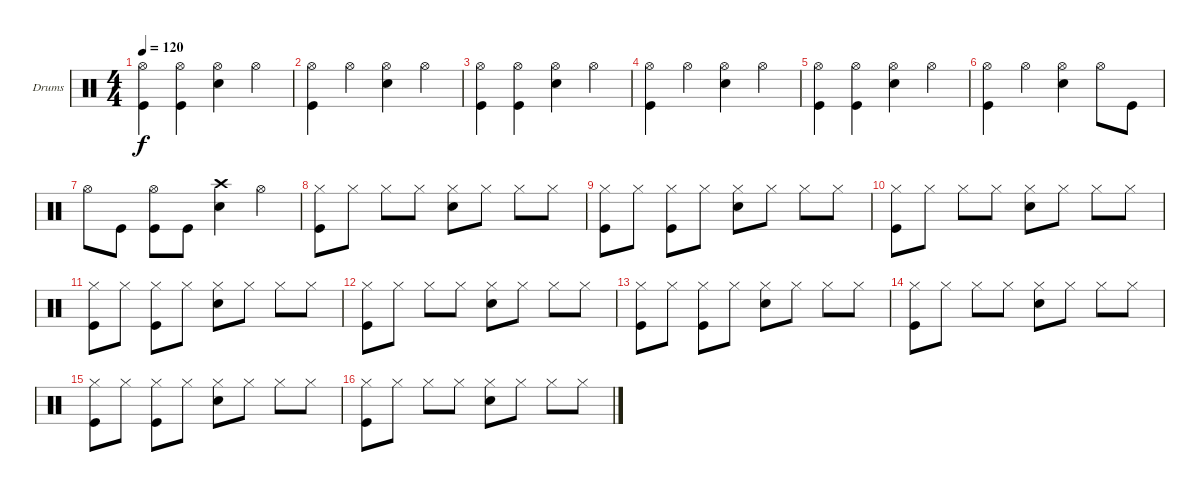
\bracketExtendMode groupsimilarinstruments
\firstSystemTrackNameOrientation horizontal
\otherSystemsTrackNameOrientation horizontal
\track ("Drumkit (Christoph)" "Drums") {instrument percussion}
\staff {score}
\articulation defaults
\ts (4 4)
\tempo 120
\clef neutral
\ks c
("Hi-Hat (open)" "Kick (hit)").4{dy f} ("Hi-Hat (open)" "Kick (hit)").4 ("Hi-Hat (open)" "Snare (hit) 2").4 "Hi-Hat (open)".4 |
("Hi-Hat (open)" "Kick (hit)").4 "Hi-Hat (open)".4 ("Hi-Hat (open)" "Snare (hit) 2").4 "Hi-Hat (open)".4 |
("Hi-Hat (open)" "Kick (hit)").4 ("Hi-Hat (open)" "Kick (hit)").4 ("Hi-Hat (open)" "Snare (hit) 2").4 "Hi-Hat (open)".4 |
("Hi-Hat (open)" "Kick (hit)").4 "Hi-Hat (open)".4 ("Hi-Hat (open)" "Snare (hit) 2").4 "Hi-Hat (open)".4 |
("Hi-Hat (open)" "Kick (hit)").4 ("Hi-Hat (open)" "Kick (hit)").4 ("Hi-Hat (open)" "Snare (hit) 2").4 "Hi-Hat (open)".4 |
("Hi-Hat (open)" "Kick (hit)").4 "Hi-Hat (open)".4 ("Hi-Hat (open)" "Snare (hit) 2").4 "Hi-Hat (open)".8 "Kick (hit)".8 |
"Hi-Hat (open)".8 "Kick (hit)".8 ("Hi-Hat (open)" "Kick (hit)").8 "Kick (hit)".8 ("Crash high (hit)" "Snare (hit) 2").4 "Hi-Hat (open)".4 |
("Hi-Hat (closed)" "Kick (hit)").8 "Hi-Hat (closed)".8 "Hi-Hat (closed)".8 "Hi-Hat (closed)".8 ("Hi-Hat (closed)" "Snare (hit) 2").8 "Hi-Hat (closed)".8 "Hi-Hat (closed)".8 "Hi-Hat (closed)".8 |
("Hi-Hat (closed)" "Kick (hit)").8 "Hi-Hat (closed)".8 ("Hi-Hat (closed)" "Kick (hit)").8 "Hi-Hat (closed)".8 ("Hi-Hat (closed)" "Snare (hit) 2").8 "Hi-Hat (closed)".8 "Hi-Hat (closed)".8 "Hi-Hat (closed)".8 |
("Hi-Hat (closed)" "Kick (hit)").8 "Hi-Hat (closed)".8 "Hi-Hat (closed)".8 "Hi-Hat (closed)".8 ("Hi-Hat (closed)" "Snare (hit) 2").8 "Hi-Hat (closed)".8 "Hi-Hat (closed)".8 "Hi-Hat (closed)".8 |
("Hi-Hat (closed)" "Kick (hit)").8 "Hi-Hat (closed)".8 ("Hi-Hat (closed)" "Kick (hit)").8 "Hi-Hat (closed)".8 ("Hi-Hat (closed)" "Snare (hit) 2").8 "Hi-Hat (closed)".8 "Hi-Hat (closed)".8 "Hi-Hat (closed)".8 |
("Hi-Hat (closed)" "Kick (hit)").8 "Hi-Hat (closed)".8 "Hi-Hat (closed)".8 "Hi-Hat (closed)".8 ("Hi-Hat (closed)" "Snare (hit) 2").8 "Hi-Hat (closed)".8 "Hi-Hat (closed)".8 "Hi-Hat (closed)".8 |
("Hi-Hat (closed)" "Kick (hit)").8 "Hi-Hat (closed)".8 ("Hi-Hat (closed)" "Kick (hit)").8 "Hi-Hat (closed)".8 ("Hi-Hat (closed)" "Snare (hit) 2").8 "Hi-Hat (closed)".8 "Hi-Hat (closed)".8 "Hi-Hat (closed)".8 |
("Hi-Hat (closed)" "Kick (hit)").8 "Hi-Hat (closed)".8 "Hi-Hat (closed)".8 "Hi-Hat (closed)".8 ("Hi-Hat (closed)" "Snare (hit) 2").8 "Hi-Hat (closed)".8 "Hi-Hat (closed)".8 "Hi-Hat (closed)".8 |
("Hi-Hat (closed)" "Kick (hit)").8 "Hi-Hat (closed)".8 ("Hi-Hat (closed)" "Kick (hit)").8 "Hi-Hat (closed)".8 ("Hi-Hat (closed)" "Snare (hit) 2").8 "Hi-Hat (closed)".8 "Hi-Hat (closed)".8 "Hi-Hat (closed)".8 |
("Hi-Hat (closed)" "Kick (hit)").8 "Hi-Hat (closed)".8 "Hi-Hat (closed)".8 "Hi-Hat (closed)".8 ("Hi-Hat (closed)" "Snare (hit) 2").8 "Hi-Hat (closed)".8 "Hi-Hat (closed)".8 "Hi-Hat (closed)".8
